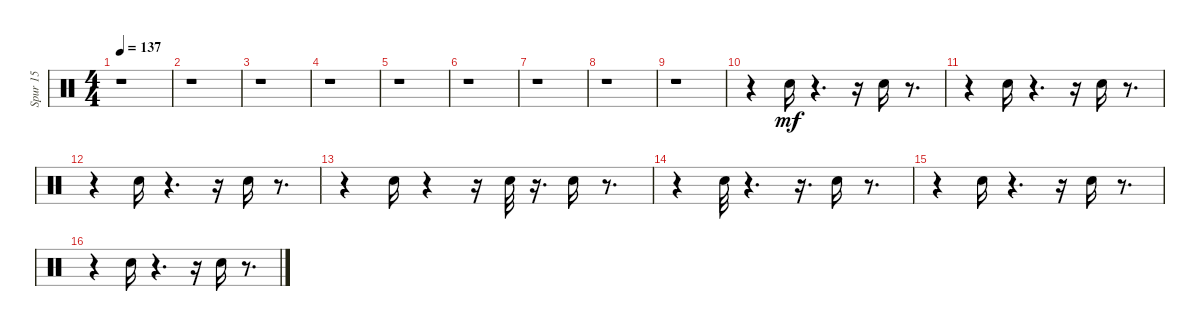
\track ("Spur 15" "Spur 15") {instrument percussion}
\staff {score}
\articulation defaults
\ts (4 4)
\tempo 137
\clef neutral
\ks c
r.1{dy mf} |
r.1 |
r.1 |
r.1 |
r.1 |
r.1 |
r.1 |
r.1 |
r.1 |
r.4 "Hand Clap (hit)".16{volume 16} r.4{d} r.16 "Hand Clap (hit)".16 r.8{d} |
r.4 "Hand Clap (hit)".16 r.4{d} r.16 "Hand Clap (hit)".16 r.8{d} |
r.4 "Hand Clap (hit)".16 r.4{d} r.16 "Hand Clap (hit)".16 r.8{d} |
r.4 "Hand Clap (hit)".16 r.4 r.16 "Hand Clap (hit)".32 r.16{d} "Hand Clap (hit)".16 r.8{d} |
r.4 "Hand Clap (hit)".32 r.4{d} r.16{d} "Hand Clap (hit)".16 r.8{d} |
r.4 "Hand Clap (hit)".16 r.4{d} r.16 "Hand Clap (hit)".16 r.8{d} |
r.4 "Hand Clap (hit)".16 r.4{d} r.16 "Hand Clap (hit)".16 r.8{d}
